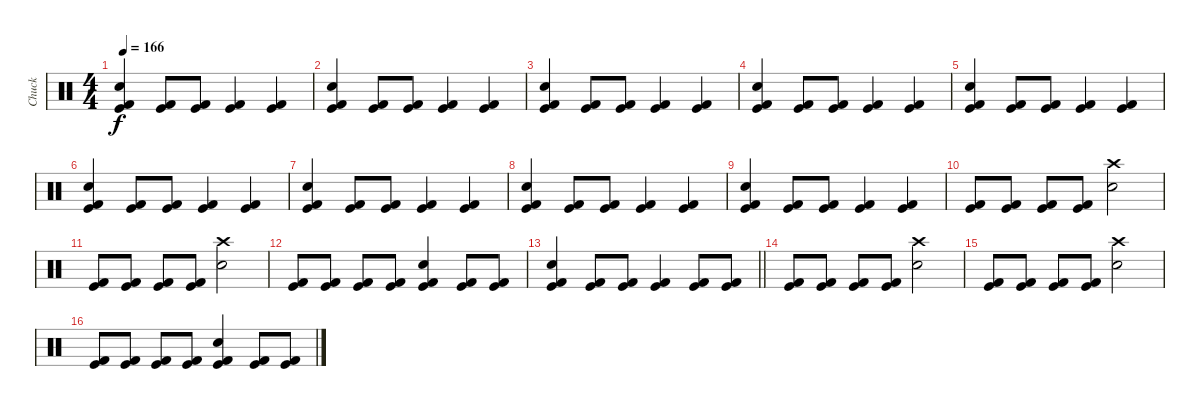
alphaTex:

\track ("Chuck" "Chuck") {instrument percussion}
\staff {score}
\articulation defaults
\ts (4 4)
\tempo 166
\clef neutral
\ks c
("Kick (hit)" "Kick (hit) 2" "Electric Snare (hit)").4{dy f} ("Kick (hit)" "Kick (hit) 2").8 ("Kick (hit)" "Kick (hit) 2").8 ("Kick (hit)" "Kick (hit) 2").4 ("Kick (hit)" "Kick (hit) 2").4 |
("Kick (hit)" "Kick (hit) 2" "Electric Snare (hit)").4 ("Kick (hit)" "Kick (hit) 2").8 ("Kick (hit)" "Kick (hit) 2").8 ("Kick (hit)" "Kick (hit) 2").4 ("Kick (hit)" "Kick (hit) 2").4 |
("Kick (hit)" "Kick (hit) 2" "Electric Snare (hit)").4 ("Kick (hit)" "Kick (hit) 2").8 ("Kick (hit)" "Kick (hit) 2").8 ("Kick (hit)" "Kick (hit) 2").4 ("Kick (hit)" "Kick (hit) 2").4 |
("Kick (hit)" "Kick (hit) 2" "Electric Snare (hit)").4 ("Kick (hit)" "Kick (hit) 2").8 ("Kick (hit)" "Kick (hit) 2").8 ("Kick (hit)" "Kick (hit) 2").4 ("Kick (hit)" "Kick (hit) 2").4 |
("Kick (hit)" "Kick (hit) 2" "Electric Snare (hit)").4 ("Kick (hit)" "Kick (hit) 2").8 ("Kick (hit)" "Kick (hit) 2").8 ("Kick (hit)" "Kick (hit) 2").4 ("Kick (hit)" "Kick (hit) 2").4 |
("Kick (hit)" "Kick (hit) 2" "Electric Snare (hit)").4 ("Kick (hit)" "Kick (hit) 2").8 ("Kick (hit)" "Kick (hit) 2").8 ("Kick (hit)" "Kick (hit) 2").4 ("Kick (hit)" "Kick (hit) 2").4 |
("Kick (hit)" "Kick (hit) 2" "Electric Snare (hit)").4 ("Kick (hit)" "Kick (hit) 2").8 ("Kick (hit)" "Kick (hit) 2").8 ("Kick (hit)" "Kick (hit) 2").4 ("Kick (hit)" "Kick (hit) 2").4 |
("Kick (hit)" "Kick (hit) 2" "Electric Snare (hit)").4 ("Kick (hit)" "Kick (hit) 2").8 ("Kick (hit)" "Kick (hit) 2").8 ("Kick (hit)" "Kick (hit) 2").4 ("Kick (hit)" "Kick (hit) 2").4 |
("Kick (hit)" "Kick (hit) 2" "Electric Snare (hit)").4 ("Kick (hit)" "Kick (hit) 2").8 ("Kick (hit)" "Kick (hit) 2").8 ("Kick (hit)" "Kick (hit) 2").4 ("Kick (hit)" "Kick (hit) 2").4 |
("Kick (hit)" "Kick (hit) 2").8 ("Kick (hit)" "Kick (hit) 2").8 ("Kick (hit)" "Kick (hit) 2").8 ("Kick (hit)" "Kick (hit) 2").8 ("Electric Snare (hit)" "Crash high (hit)").2 |
("Kick (hit)" "Kick (hit) 2").8 ("Kick (hit)" "Kick (hit) 2").8 ("Kick (hit)" "Kick (hit) 2").8 ("Kick (hit)" "Kick (hit) 2").8 ("Electric Snare (hit)" "Crash high (hit)").2 |
("Kick (hit)" "Kick (hit) 2").8 ("Kick (hit)" "Kick (hit) 2").8 ("Kick (hit)" "Kick (hit) 2").8 ("Kick (hit)" "Kick (hit) 2").8 ("Kick (hit)" "Kick (hit) 2" "Electric Snare (hit)").4 ("Kick (hit)" "Kick (hit) 2").8 ("Kick (hit)" "Kick (hit) 2").8 |
\barLineRight lightlight
("Kick (hit)" "Kick (hit) 2" "Electric Snare (hit)").4 ("Kick (hit)" "Kick (hit) 2").8 ("Kick (hit)" "Kick (hit) 2").8 ("Kick (hit)" "Kick (hit) 2").4 ("Kick (hit)" "Kick (hit) 2").8 ("Kick (hit)" "Kick (hit) 2").8 |
("Kick (hit)" "Kick (hit) 2").8 ("Kick (hit)" "Kick (hit) 2").8 ("Kick (hit)" "Kick (hit) 2").8 ("Kick (hit)" "Kick (hit) 2").8 ("Electric Snare (hit)" "Crash high (hit)").2 |
("Kick (hit)" "Kick (hit) 2").8 ("Kick (hit)" "Kick (hit) 2").8 ("Kick (hit)" "Kick (hit) 2").8 ("Kick (hit)" "Kick (hit) 2").8 ("Electric Snare (hit)" "Crash high (hit)").2 |
("Kick (hit)" "Kick (hit) 2").8 ("Kick (hit)" "Kick (hit) 2").8 ("Kick (hit)" "Kick (hit) 2").8 ("Kick (hit)" "Kick (hit) 2").8 ("Kick (hit)" "Kick (hit) 2" "Electric Snare (hit)").4 ("Kick (hit)" "Kick (hit) 2").8 ("Kick (hit)" "Kick (hit) 2").8
